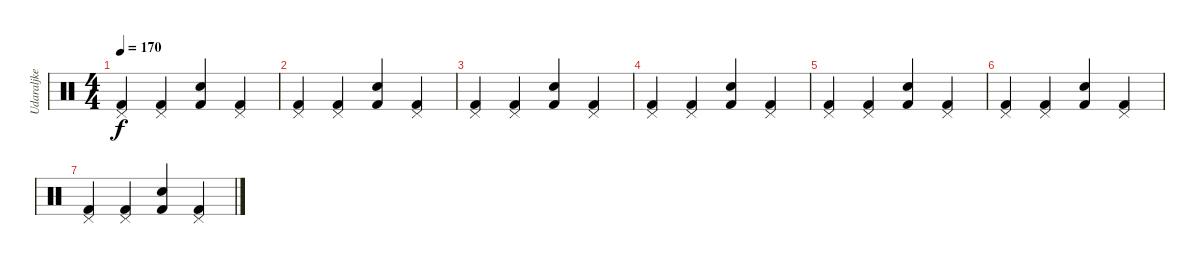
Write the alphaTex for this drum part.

\track ("Udaraljke" "Udaraljke") {instrument percussion}
\staff {score}
\articulation defaults
\ts (4 4)
\tempo 170
\clef neutral
\ks c
("Kick (hit) 2" "Pedal Hi-Hat (hit)").4{dy f} ("Kick (hit) 2" "Pedal Hi-Hat (hit)").4 ("Kick (hit) 2" "Electric Snare (hit)").4 ("Kick (hit) 2" "Pedal Hi-Hat (hit)").4 |
("Kick (hit) 2" "Pedal Hi-Hat (hit)").4 ("Kick (hit) 2" "Pedal Hi-Hat (hit)").4 ("Kick (hit) 2" "Electric Snare (hit)").4 ("Kick (hit) 2" "Pedal Hi-Hat (hit)").4 |
("Kick (hit) 2" "Pedal Hi-Hat (hit)").4 ("Kick (hit) 2" "Pedal Hi-Hat (hit)").4 ("Kick (hit) 2" "Electric Snare (hit)").4 ("Kick (hit) 2" "Pedal Hi-Hat (hit)").4 |
("Kick (hit) 2" "Pedal Hi-Hat (hit)").4 ("Kick (hit) 2" "Pedal Hi-Hat (hit)").4 ("Kick (hit) 2" "Electric Snare (hit)").4 ("Kick (hit) 2" "Pedal Hi-Hat (hit)").4 |
("Kick (hit) 2" "Pedal Hi-Hat (hit)").4 ("Kick (hit) 2" "Pedal Hi-Hat (hit)").4 ("Kick (hit) 2" "Electric Snare (hit)").4 ("Kick (hit) 2" "Pedal Hi-Hat (hit)").4 |
("Kick (hit) 2" "Pedal Hi-Hat (hit)").4 ("Kick (hit) 2" "Pedal Hi-Hat (hit)").4 ("Kick (hit) 2" "Electric Snare (hit)").4 ("Kick (hit) 2" "Pedal Hi-Hat (hit)").4 |
("Kick (hit) 2" "Pedal Hi-Hat (hit)").4 ("Kick (hit) 2" "Pedal Hi-Hat (hit)").4 ("Kick (hit) 2" "Electric Snare (hit)").4 ("Kick (hit) 2" "Pedal Hi-Hat (hit)").4
